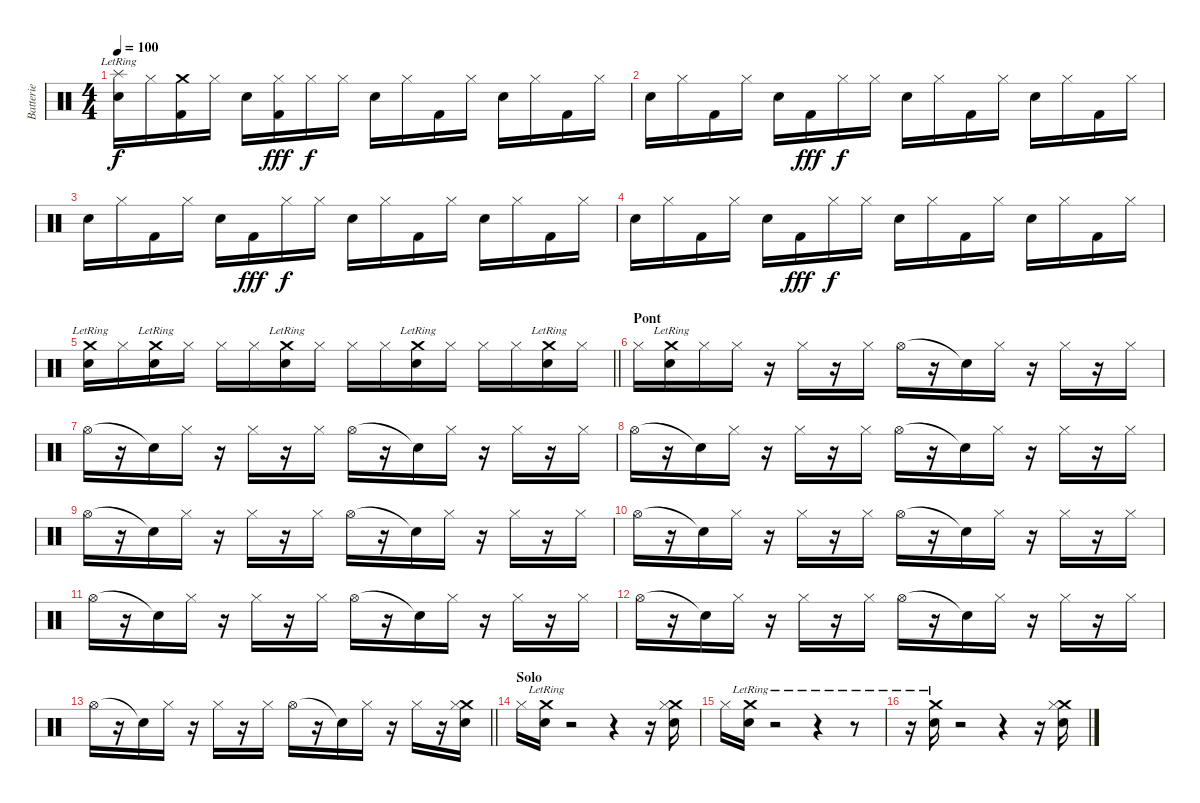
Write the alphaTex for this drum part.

\track ("Batterie" "Batterie") {instrument percussion}
\staff {score}
\articulation defaults
\ts (4 4)
\tempo 100
\clef neutral
\ks c
("Splash (hit)"{lr} "Electric Snare (hit)").16{dy f} "Hi-Hat (closed)".16 ("Crash medium (hit)" "Kick (hit) 2").16 "Hi-Hat (closed)".16 "Electric Snare (hit)".16 ("Kick (hit) 2" "Hi-Hat (closed)").16{dy fff} "Hi-Hat (closed)".16{dy f} "Hi-Hat (closed)".16 "Electric Snare (hit)".16 "Hi-Hat (closed)".16 "Kick (hit) 2".16 "Hi-Hat (closed)".16 "Electric Snare (hit)".16 "Hi-Hat (closed)".16 "Kick (hit) 2".16 "Hi-Hat (closed)".16 |
"Electric Snare (hit)".16 "Hi-Hat (closed)".16 "Kick (hit) 2".16 "Hi-Hat (closed)".16 "Electric Snare (hit)".16 "Kick (hit) 2".16{dy fff} "Hi-Hat (closed)".16{dy f} "Hi-Hat (closed)".16 "Electric Snare (hit)".16 "Hi-Hat (closed)".16 "Kick (hit) 2".16 "Hi-Hat (closed)".16 "Electric Snare (hit)".16 "Hi-Hat (closed)".16 "Kick (hit) 2".16 "Hi-Hat (closed)".16 |
"Electric Snare (hit)".16 "Hi-Hat (closed)".16 "Kick (hit) 2".16 "Hi-Hat (closed)".16 "Electric Snare (hit)".16 "Kick (hit) 2".16{dy fff} "Hi-Hat (closed)".16{dy f} "Hi-Hat (closed)".16 "Electric Snare (hit)".16 "Hi-Hat (closed)".16 "Kick (hit) 2".16 "Hi-Hat (closed)".16 "Electric Snare (hit)".16 "Hi-Hat (closed)".16 "Kick (hit) 2".16 "Hi-Hat (closed)".16 |
"Electric Snare (hit)".16 "Hi-Hat (closed)".16 "Kick (hit) 2".16 "Hi-Hat (closed)".16 "Electric Snare (hit)".16 "Kick (hit) 2".16{dy fff} "Hi-Hat (closed)".16{dy f} "Hi-Hat (closed)".16 "Electric Snare (hit)".16 "Hi-Hat (closed)".16 "Kick (hit) 2".16 "Hi-Hat (closed)".16 "Electric Snare (hit)".16 "Hi-Hat (closed)".16 "Kick (hit) 2".16 "Hi-Hat (closed)".16 |
\barLineRight lightlight
("Crash medium (hit)"{lr} "Electric Snare (hit)").16 "Hi-Hat (closed)".16 ("Crash medium (hit)"{lr} "Electric Snare (hit)").16 "Hi-Hat (closed)".16 "Hi-Hat (closed)".16 "Hi-Hat (closed)".16 ("Crash medium (hit)"{lr} "Electric Snare (hit)").16 "Hi-Hat (closed)".16 "Hi-Hat (closed)".16 "Hi-Hat (closed)".16 ("Crash medium (hit)"{lr} "Electric Snare (hit)").16 "Hi-Hat (closed)".16 "Hi-Hat (closed)".16 "Hi-Hat (closed)".16 ("Crash medium (hit)"{lr} "Electric Snare (hit)").16 "Hi-Hat (closed)".16 |
\section ("" "Pont")
"Hi-Hat (closed)".16 ("Crash medium (hit)"{lr} "Electric Snare (hit)").16 "Hi-Hat (closed)".16 "Hi-Hat (closed)".16 r.16 "Hi-Hat (closed)".16 r.16 "Hi-Hat (closed)".16 "Hi-Hat (open)".16 r.16 "Snare (hit)"{t}.16 "Hi-Hat (closed)".16 r.16 "Hi-Hat (closed)".16 r.16 "Hi-Hat (closed)".16 |
"Hi-Hat (open)".16 r.16 "Snare (hit)"{t}.16 "Hi-Hat (closed)".16 r.16 "Hi-Hat (closed)".16 r.16 "Hi-Hat (closed)".16 "Hi-Hat (open)".16 r.16 "Snare (hit)"{t}.16 "Hi-Hat (closed)".16 r.16 "Hi-Hat (closed)".16 r.16 "Hi-Hat (closed)".16 |
"Hi-Hat (open)".16 r.16 "Snare (hit)"{t}.16 "Hi-Hat (closed)".16 r.16 "Hi-Hat (closed)".16 r.16 "Hi-Hat (closed)".16 "Hi-Hat (open)".16 r.16 "Snare (hit)"{t}.16 "Hi-Hat (closed)".16 r.16 "Hi-Hat (closed)".16 r.16 "Hi-Hat (closed)".16 |
"Hi-Hat (open)".16 r.16 "Snare (hit)"{t}.16 "Hi-Hat (closed)".16 r.16 "Hi-Hat (closed)".16 r.16 "Hi-Hat (closed)".16 "Hi-Hat (open)".16 r.16 "Snare (hit)"{t}.16 "Hi-Hat (closed)".16 r.16 "Hi-Hat (closed)".16 r.16 "Hi-Hat (closed)".16 |
"Hi-Hat (open)".16 r.16 "Snare (hit)"{t}.16 "Hi-Hat (closed)".16 r.16 "Hi-Hat (closed)".16 r.16 "Hi-Hat (closed)".16 "Hi-Hat (open)".16 r.16 "Snare (hit)"{t}.16 "Hi-Hat (closed)".16 r.16 "Hi-Hat (closed)".16 r.16 "Hi-Hat (closed)".16 |
"Hi-Hat (open)".16 r.16 "Snare (hit)"{t}.16 "Hi-Hat (closed)".16 r.16 "Hi-Hat (closed)".16 r.16 "Hi-Hat (closed)".16 "Hi-Hat (open)".16 r.16 "Snare (hit)"{t}.16 "Hi-Hat (closed)".16 r.16 "Hi-Hat (closed)".16 r.16 "Hi-Hat (closed)".16 |
"Hi-Hat (open)".16 r.16 "Snare (hit)"{t}.16 "Hi-Hat (closed)".16 r.16 "Hi-Hat (closed)".16 r.16 "Hi-Hat (closed)".16 "Hi-Hat (open)".16 r.16 "Snare (hit)"{t}.16 "Hi-Hat (closed)".16 r.16 "Hi-Hat (closed)".16 r.16 "Hi-Hat (closed)".16 |
\barLineRight lightlight "Hi-Hat (open)".16
r.16 "Snare (hit)"{t}.16 "Hi-Hat (closed)".16 r.16 "Hi-Hat (closed)".16 r.16 "Hi-Hat (closed)".16 "Hi-Hat (open)".16 r.16 "Snare (hit)"{t}.16 "Hi-Hat (closed)".16 r.16 "Hi-Hat (closed)".16 r.16 ("Crash medium (hit)" "Electric Snare (hit)" "Hi-Hat (closed)").16 |
\section ("" "Solo")
"Hi-Hat (closed)".16 ("Crash medium (hit)"{lr} "Electric Snare (hit)").16 r.2 r.4 r.16 ("Crash medium (hit)" "Electric Snare (hit)" "Hi-Hat (closed)").16 |
"Hi-Hat (closed)".16 ("Crash medium (hit)"{lr} "Electric Snare (hit)").16 r.2 r.4 r.8 |
r.16 ("Crash medium (hit)"{lr} "Electric Snare (hit)").16 r.2 r.4 r.16 ("Crash medium (hit)" "Electric Snare (hit)" "Hi-Hat (closed)").16
